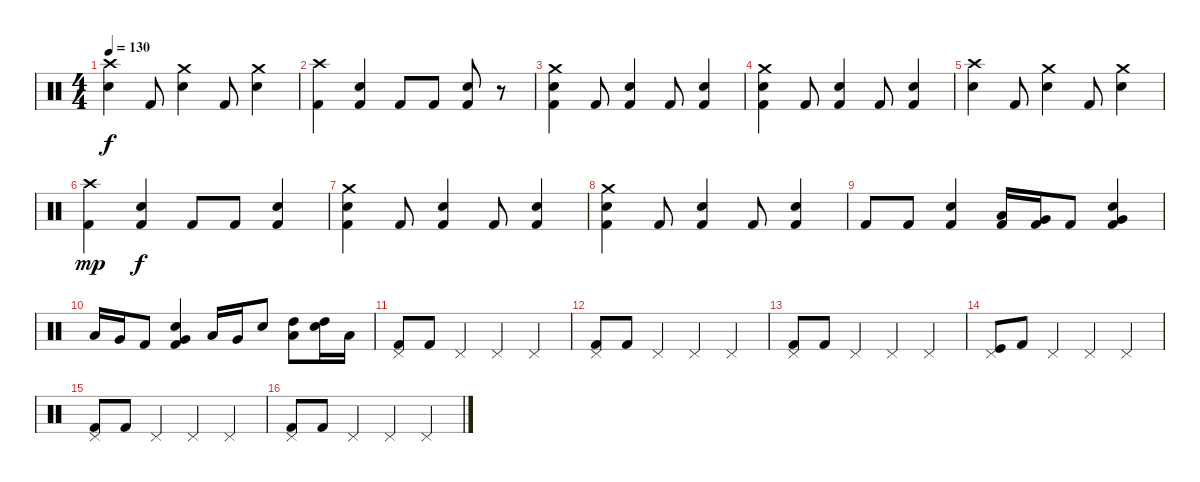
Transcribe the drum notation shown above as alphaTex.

\track "" {instrument percussion}
\staff {score}
\articulation defaults
\ts (4 4)
\tempo 130
\clef neutral
\ks c
("Crash high (hit)" "Electric Snare (hit)").4{dy f} "Kick (hit) 2".8 ("Crash medium (hit)" "Electric Snare (hit)").4 "Kick (hit) 2".8 ("Crash medium (hit)" "Electric Snare (hit)").4 |
("Crash high (hit)" "Kick (hit) 2").4 ("Kick (hit) 2" "Electric Snare (hit)").4 "Kick (hit) 2".8 "Kick (hit) 2".8 ("Kick (hit) 2" "Electric Snare (hit)").8 r.8 |
("Crash medium (hit)" "Kick (hit) 2" "Electric Snare (hit)").4 "Kick (hit) 2".8 ("Kick (hit) 2" "Electric Snare (hit)").4 "Kick (hit) 2".8 ("Kick (hit) 2" "Electric Snare (hit)").4 |
("Crash medium (hit)" "Kick (hit) 2" "Electric Snare (hit)").4 "Kick (hit) 2".8 ("Kick (hit) 2" "Electric Snare (hit)").4 "Kick (hit) 2".8 ("Kick (hit) 2" "Electric Snare (hit)").4 |
("Crash high (hit)" "Electric Snare (hit)").4 "Kick (hit) 2".8 ("Crash medium (hit)" "Electric Snare (hit)").4 "Kick (hit) 2".8 ("Crash medium (hit)" "Electric Snare (hit)").4 |
("Crash high (hit)" "Kick (hit) 2").4{dy mp} ("Kick (hit) 2" "Electric Snare (hit)").4{dy f} "Kick (hit) 2".8 "Kick (hit) 2".8 ("Kick (hit) 2" "Electric Snare (hit)").4 |
("Kick (hit) 2" "Electric Snare (hit)" "Crash medium (hit)").4 "Kick (hit) 2".8 ("Kick (hit) 2" "Electric Snare (hit)").4 "Kick (hit) 2".8 ("Kick (hit) 2" "Electric Snare (hit)").4 |
("Crash medium (hit)" "Kick (hit) 2" "Electric Snare (hit)").4 "Kick (hit) 2".8 ("Kick (hit) 2" "Electric Snare (hit)").4 "Kick (hit) 2".8 ("Kick (hit) 2" "Electric Snare (hit)").4 |
"Kick (hit) 2".8 "Kick (hit) 2".8 ("Electric Snare (hit)" "Kick (hit) 2").4 ("Low Floor Tom (hit)" "Kick (hit) 2").16 ("Very Low Tom (hit)" "Kick (hit) 2").16 "Kick (hit) 2".8 ("Electric Snare (hit)" "Very Low Tom (hit)" "Kick (hit) 2").4 |
"Low Floor Tom (hit)".16 "Very Low Tom (hit)".16 "Kick (hit) 2".8 ("Electric Snare (hit)" "Very Low Tom (hit)" "Kick (hit) 2").4 "Low Floor Tom (hit)".16 "Very Low Tom (hit)".16 "Electric Snare (hit)".8 ("High Tom (hit)" "Low Tom (hit)").8 ("High Tom (hit)" "Electric Snare (hit)").16 "Low Tom (hit)".16 |
("Pedal Hi-Hat (hit)" "Kick (hit) 2").8 "Kick (hit) 2".8 "Pedal Hi-Hat (hit)".4 "Pedal Hi-Hat (hit)".4 "Pedal Hi-Hat (hit)".4 |
("Pedal Hi-Hat (hit)" "Kick (hit) 2").8 "Kick (hit) 2".8 "Pedal Hi-Hat (hit)".4 "Pedal Hi-Hat (hit)".4 "Pedal Hi-Hat (hit)".4 |
("Pedal Hi-Hat (hit)" "Kick (hit) 2").8 "Kick (hit) 2".8 "Pedal Hi-Hat (hit)".4 "Pedal Hi-Hat (hit)".4 "Pedal Hi-Hat (hit)".4 |
("Pedal Hi-Hat (hit)" "Kick (hit)").8 "Kick (hit) 2".8 "Pedal Hi-Hat (hit)".4 "Pedal Hi-Hat (hit)".4 "Pedal Hi-Hat (hit)".4 |
("Pedal Hi-Hat (hit)" "Kick (hit) 2").8 "Kick (hit) 2".8 "Pedal Hi-Hat (hit)".4 "Pedal Hi-Hat (hit)".4 "Pedal Hi-Hat (hit)".4 |
("Pedal Hi-Hat (hit)" "Kick (hit) 2").8 "Kick (hit) 2".8 "Pedal Hi-Hat (hit)".4 "Pedal Hi-Hat (hit)".4 "Pedal Hi-Hat (hit)".4
